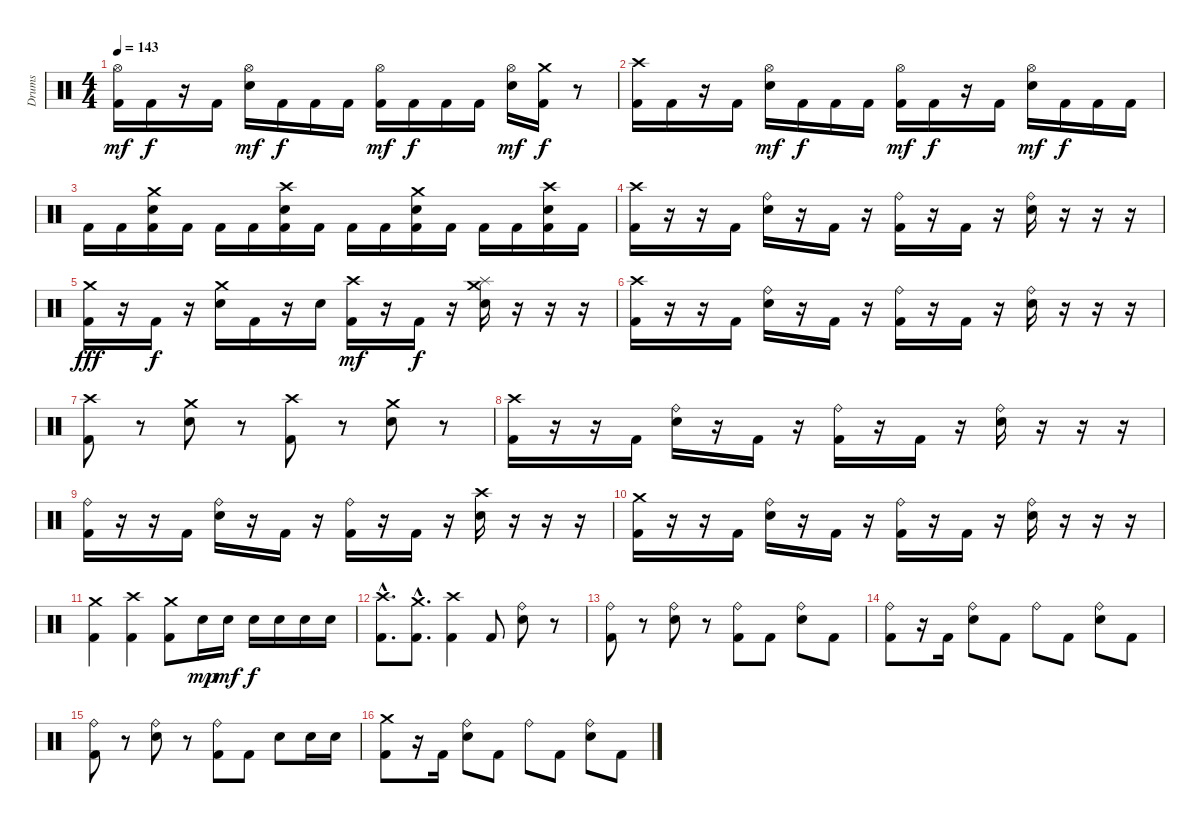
\track ("Drums" "Drums") {instrument percussion}
\staff {score}
\articulation defaults
\ts (4 4)
\tempo 143
\clef neutral
\ks c
("Hi-Hat (open)" "Kick (hit) 2").16{dy mf} "Kick (hit) 2".16{dy f} r.16 "Kick (hit) 2".16 ("Hi-Hat (open)" "Electric Snare (hit)").16{dy mf} "Kick (hit) 2".16{dy f} "Kick (hit) 2".16 "Kick (hit) 2".16 ("Hi-Hat (open)" "Kick (hit) 2").16{dy mf} "Kick (hit) 2".16{dy f} "Kick (hit) 2".16 "Kick (hit) 2".16 ("Hi-Hat (open)" "Electric Snare (hit)").16{dy mf} ("Crash medium (hit)" "Kick (hit) 2").16{dy f} r.8 |
("Crash high (hit)" "Kick (hit) 2").16 "Kick (hit) 2".16 r.16 "Kick (hit) 2".16 ("Hi-Hat (open)" "Electric Snare (hit)").16{dy mf} "Kick (hit) 2".16{dy f} "Kick (hit) 2".16 "Kick (hit) 2".16 ("Hi-Hat (open)" "Kick (hit) 2").16{dy mf} "Kick (hit) 2".16{dy f} r.16 "Kick (hit) 2".16 ("Hi-Hat (open)" "Electric Snare (hit)").16{dy mf} "Kick (hit) 2".16{dy f} "Kick (hit) 2".16 "Kick (hit) 2".16 |
"Kick (hit) 2".16 "Kick (hit) 2".16 ("Crash medium (hit)" "Electric Snare (hit)" "Kick (hit) 2").16 "Kick (hit) 2".16 "Kick (hit) 2".16 "Kick (hit) 2".16 ("Crash high (hit)" "Electric Snare (hit)" "Kick (hit) 2").16 "Kick (hit) 2".16 "Kick (hit) 2".16 "Kick (hit) 2".16 ("Crash medium (hit)" "Electric Snare (hit)" "Kick (hit) 2").16 "Kick (hit) 2".16 "Kick (hit) 2".16 "Kick (hit) 2".16 ("Crash high (hit)" "Electric Snare (hit)" "Kick (hit) 2").16 "Kick (hit) 2".16 |
("Crash high (hit)" "Kick (hit) 2").16 r.16 r.16 "Kick (hit) 2".16 ("Ride (bell)" "Electric Snare (hit)").16 r.16 "Kick (hit) 2".16 r.16 ("Ride (bell)" "Kick (hit) 2").16 r.16 "Kick (hit) 2".16 r.16 ("Ride (bell)" "Electric Snare (hit)").16 r.16 r.16 r.16 |
("Crash medium (hit)" "Kick (hit) 2").16{dy fff} r.16 "Kick (hit) 2".16{dy f} r.16 ("Crash medium (hit)" "Electric Snare (hit)").16 "Kick (hit) 2".16 r.16 "Electric Snare (hit)".16 ("Crash high (hit)" "Kick (hit) 2").16{dy mf} r.16 "Kick (hit) 2".16{dy f} r.16 ("Crash medium (hit)" "Splash (hit)" "Electric Snare (hit)").16 r.16 r.16 r.16 |
("Crash high (hit)" "Kick (hit) 2").16 r.16 r.16 "Kick (hit) 2".16 ("Ride (bell)" "Electric Snare (hit)").16 r.16 "Kick (hit) 2".16 r.16 ("Ride (bell)" "Kick (hit) 2").16 r.16 "Kick (hit) 2".16 r.16 ("Ride (bell)" "Electric Snare (hit)").16 r.16 r.16 r.16 |
("Crash high (hit)" "Kick (hit) 2").8 r.8 ("Crash medium (hit)" "Electric Snare (hit)").8 r.8 ("Crash high (hit)" "Kick (hit) 2").8 r.8 ("Crash medium (hit)" "Electric Snare (hit)").8 r.8 |
("Crash high (hit)" "Kick (hit) 2").16 r.16 r.16 "Kick (hit) 2".16 ("Ride (bell)" "Electric Snare (hit)").16 r.16 "Kick (hit) 2".16 r.16 ("Ride (bell)" "Kick (hit) 2").16 r.16 "Kick (hit) 2".16 r.16 ("Ride (bell)" "Electric Snare (hit)").16 r.16 r.16 r.16 |
("Ride (bell)" "Kick (hit) 2").16 r.16 r.16 "Kick (hit) 2".16 ("Ride (bell)" "Electric Snare (hit)").16 r.16 "Kick (hit) 2".16 r.16 ("Ride (bell)" "Kick (hit) 2").16 r.16 "Kick (hit) 2".16 r.16 ("Crash high (hit)" "Electric Snare (hit)").16 r.16 r.16 r.16 |
("Crash medium (hit)" "Kick (hit) 2").16 r.16 r.16 "Kick (hit) 2".16 ("Ride (bell)" "Electric Snare (hit)").16 r.16 "Kick (hit) 2".16 r.16 ("Ride (bell)" "Kick (hit) 2").16 r.16 "Kick (hit) 2".16 r.16 ("Ride (bell)" "Electric Snare (hit)").16 r.16 r.16 r.16 |
("Crash medium (hit)" "Kick (hit) 2").4 ("Crash high (hit)" "Kick (hit) 2").4 ("Crash medium (hit)" "Kick (hit) 2").8 "Electric Snare (hit)".16{dy mp} "Electric Snare (hit)".16{dy mf} "Electric Snare (hit)".16{dy f} "Electric Snare (hit)".16 "Electric Snare (hit)".16 "Electric Snare (hit)".16 |
("Crash high (hit)"{hac} "Kick (hit) 2"{hac}).8{d} ("Crash medium (hit)"{hac} "Kick (hit) 2"{hac}).8{d} ("Crash high (hit)" "Kick (hit) 2").4 "Kick (hit) 2".8 ("Ride (bell)" "Electric Snare (hit)").8 r.8 |
("Ride (bell)" "Kick (hit) 2").8 r.8 ("Ride (bell)" "Electric Snare (hit)").8 r.8 ("Ride (bell)" "Kick (hit) 2").8 "Kick (hit) 2".8 ("Ride (bell)" "Electric Snare (hit)").8 "Kick (hit) 2".8 |
("Ride (bell)" "Kick (hit) 2").8 r.16 "Kick (hit) 2".16 ("Ride (bell)" "Electric Snare (hit)").8 "Kick (hit) 2".8 "Ride (bell)".8 "Kick (hit) 2".8 ("Ride (bell)" "Electric Snare (hit)").8 "Kick (hit) 2".8 |
("Ride (bell)" "Kick (hit) 2").8 r.8 ("Ride (bell)" "Electric Snare (hit)").8 r.8 ("Ride (bell)" "Kick (hit) 2").8 "Kick (hit) 2".8 "Electric Snare (hit)".8 "Electric Snare (hit)".16 "Electric Snare (hit)".16 |
("Crash medium (hit)" "Kick (hit) 2").8 r.16 "Kick (hit) 2".16 ("Ride (bell)" "Electric Snare (hit)").8 "Kick (hit) 2".8 "Ride (bell)".8 "Kick (hit) 2".8 ("Ride (bell)" "Electric Snare (hit)").8 "Kick (hit) 2".8
